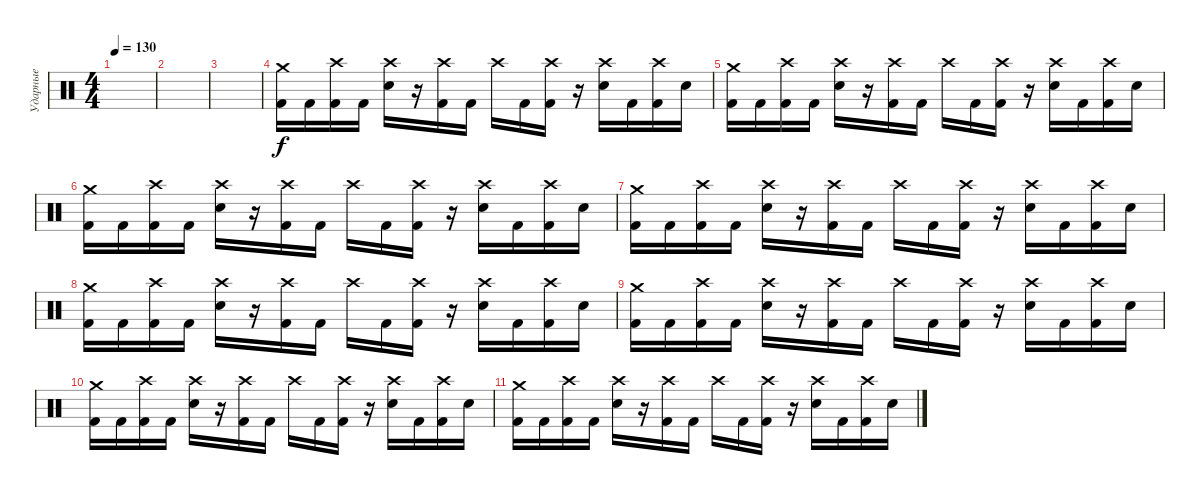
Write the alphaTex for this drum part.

\track ("Ударные" "Ударные") {instrument percussion}
\staff {score}
\articulation defaults
\ts (4 4)
\tempo 130
\clef neutral
\ks c
|
|
|
("Kick (hit) 2" "Crash medium (hit)").16 "Kick (hit) 2".16 ("Kick (hit) 2" "Crash high (hit)").16 "Kick (hit) 2".16 ("Electric Snare (hit)" "Crash high (hit)").16 r.16 ("Kick (hit) 2" "Crash high (hit)").16 "Kick (hit) 2".16 "Crash high (hit)".16 "Kick (hit) 2".16 ("Kick (hit) 2" "Crash high (hit)").16 r.16 ("Electric Snare (hit)" "Crash high (hit)").16 "Kick (hit) 2".16 ("Kick (hit) 2" "Crash high (hit)").16 "Electric Snare (hit)".16 |
("Kick (hit) 2" "Crash medium (hit)").16 "Kick (hit) 2".16 ("Kick (hit) 2" "Crash high (hit)").16 "Kick (hit) 2".16 ("Electric Snare (hit)" "Crash high (hit)").16 r.16 ("Kick (hit) 2" "Crash high (hit)").16 "Kick (hit) 2".16 "Crash high (hit)".16 "Kick (hit) 2".16 ("Kick (hit) 2" "Crash high (hit)").16 r.16 ("Electric Snare (hit)" "Crash high (hit)").16 "Kick (hit) 2".16 ("Kick (hit) 2" "Crash high (hit)").16 "Electric Snare (hit)".16 |
("Kick (hit) 2" "Crash medium (hit)").16 "Kick (hit) 2".16 ("Kick (hit) 2" "Crash high (hit)").16 "Kick (hit) 2".16 ("Electric Snare (hit)" "Crash high (hit)").16 r.16 ("Kick (hit) 2" "Crash high (hit)").16 "Kick (hit) 2".16 "Crash high (hit)".16 "Kick (hit) 2".16 ("Kick (hit) 2" "Crash high (hit)").16 r.16 ("Electric Snare (hit)" "Crash high (hit)").16 "Kick (hit) 2".16 ("Kick (hit) 2" "Crash high (hit)").16 "Electric Snare (hit)".16 |
("Kick (hit) 2" "Crash medium (hit)").16 "Kick (hit) 2".16 ("Kick (hit) 2" "Crash high (hit)").16 "Kick (hit) 2".16 ("Electric Snare (hit)" "Crash high (hit)").16 r.16 ("Kick (hit) 2" "Crash high (hit)").16 "Kick (hit) 2".16 "Crash high (hit)".16 "Kick (hit) 2".16 ("Kick (hit) 2" "Crash high (hit)").16 r.16 ("Electric Snare (hit)" "Crash high (hit)").16 "Kick (hit) 2".16 ("Kick (hit) 2" "Crash high (hit)").16 "Electric Snare (hit)".16 |
("Kick (hit) 2" "Crash medium (hit)").16 "Kick (hit) 2".16 ("Kick (hit) 2" "Crash high (hit)").16 "Kick (hit) 2".16 ("Electric Snare (hit)" "Crash high (hit)").16 r.16 ("Kick (hit) 2" "Crash high (hit)").16 "Kick (hit) 2".16 "Crash high (hit)".16 "Kick (hit) 2".16 ("Kick (hit) 2" "Crash high (hit)").16 r.16 ("Electric Snare (hit)" "Crash high (hit)").16 "Kick (hit) 2".16 ("Kick (hit) 2" "Crash high (hit)").16 "Electric Snare (hit)".16 |
("Kick (hit) 2" "Crash medium (hit)").16 "Kick (hit) 2".16 ("Kick (hit) 2" "Crash high (hit)").16 "Kick (hit) 2".16 ("Electric Snare (hit)" "Crash high (hit)").16 r.16 ("Kick (hit) 2" "Crash high (hit)").16 "Kick (hit) 2".16 "Crash high (hit)".16 "Kick (hit) 2".16 ("Kick (hit) 2" "Crash high (hit)").16 r.16 ("Electric Snare (hit)" "Crash high (hit)").16 "Kick (hit) 2".16 ("Kick (hit) 2" "Crash high (hit)").16 "Electric Snare (hit)".16 |
("Kick (hit) 2" "Crash medium (hit)").16 "Kick (hit) 2".16 ("Kick (hit) 2" "Crash high (hit)").16 "Kick (hit) 2".16 ("Electric Snare (hit)" "Crash high (hit)").16 r.16 ("Kick (hit) 2" "Crash high (hit)").16 "Kick (hit) 2".16 "Crash high (hit)".16 "Kick (hit) 2".16 ("Kick (hit) 2" "Crash high (hit)").16 r.16 ("Electric Snare (hit)" "Crash high (hit)").16 "Kick (hit) 2".16 ("Kick (hit) 2" "Crash high (hit)").16 "Electric Snare (hit)".16 |
("Kick (hit) 2" "Crash medium (hit)").16 "Kick (hit) 2".16 ("Kick (hit) 2" "Crash high (hit)").16 "Kick (hit) 2".16 ("Electric Snare (hit)" "Crash high (hit)").16 r.16 ("Kick (hit) 2" "Crash high (hit)").16 "Kick (hit) 2".16 "Crash high (hit)".16 "Kick (hit) 2".16 ("Kick (hit) 2" "Crash high (hit)").16 r.16 ("Electric Snare (hit)" "Crash high (hit)").16 "Kick (hit) 2".16 ("Kick (hit) 2" "Crash high (hit)").16 "Electric Snare (hit)".16
